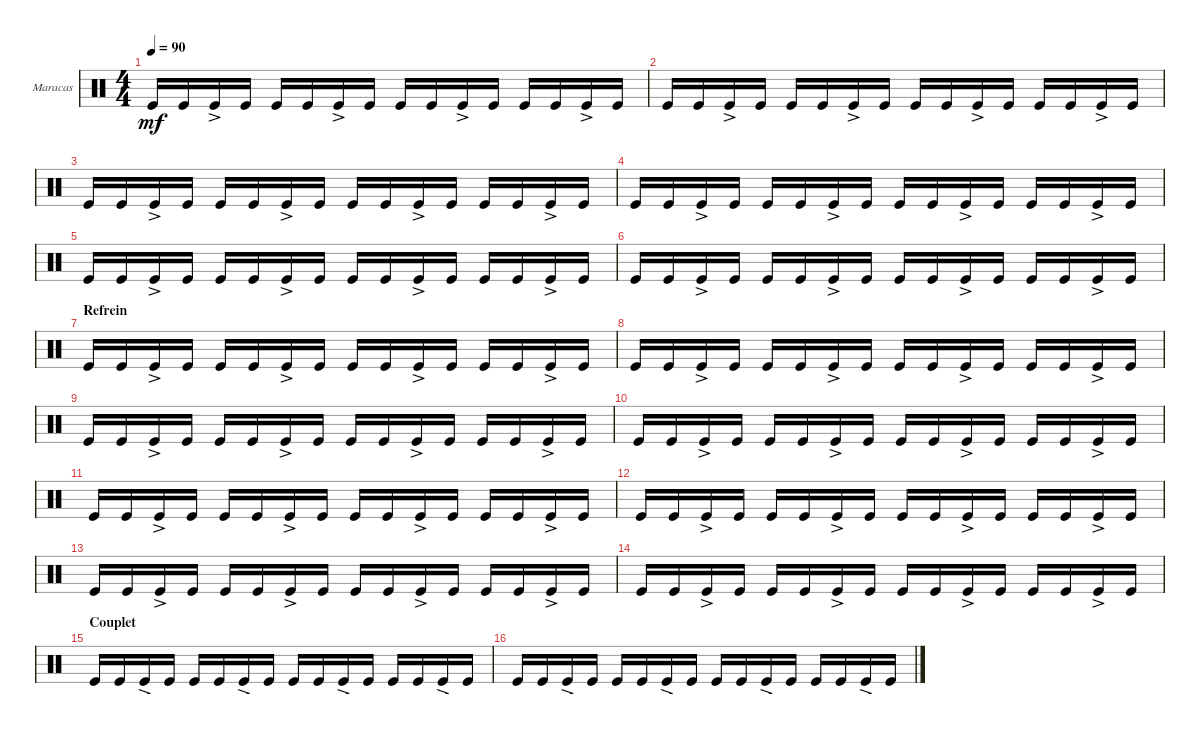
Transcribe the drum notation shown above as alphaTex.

\defaultSystemsLayout 4
\bracketExtendMode groupsimilarinstruments
\firstSystemTrackNameOrientation horizontal
\otherSystemsTrackNameOrientation horizontal
\track ("Maracas" "Maracas") {instrument percussion}
\staff {score}
\articulation defaults
\ts (4 4)
\tempo 90
\clef neutral
\scale
0.333333
\ks c "Kick (hit)".16{dy mf} "Kick (hit)".16 "Kick (hit)"{ac}.16 "Kick (hit)".16 "Kick (hit)".16 "Kick (hit)".16 "Kick (hit)"{ac}.16 "Kick (hit)".16 "Kick (hit)".16 "Kick (hit)".16 "Kick (hit)"{ac}.16 "Kick (hit)".16 "Kick (hit)".16 "Kick (hit)".16 "Kick (hit)"{ac}.16 "Kick (hit)".16
|
\scale
0.333333 "Kick (hit)".16 "Kick (hit)".16 "Kick (hit)"{ac}.16 "Kick (hit)".16 "Kick (hit)".16 "Kick (hit)".16 "Kick (hit)"{ac}.16 "Kick (hit)".16 "Kick (hit)".16 "Kick (hit)".16 "Kick (hit)"{ac}.16 "Kick (hit)".16 "Kick (hit)".16 "Kick (hit)".16 "Kick (hit)"{ac}.16 "Kick (hit)".16 |
\scale
0.333333 "Kick (hit)".16 "Kick (hit)".16 "Kick (hit)"{ac}.16 "Kick (hit)".16 "Kick (hit)".16 "Kick (hit)".16 "Kick (hit)"{ac}.16 "Kick (hit)".16 "Kick (hit)".16 "Kick (hit)".16 "Kick (hit)"{ac}.16 "Kick (hit)".16 "Kick (hit)".16 "Kick (hit)".16 "Kick (hit)"{ac}.16 "Kick (hit)".16 |
\scale
0.333333 "Kick (hit)".16 "Kick (hit)".16 "Kick (hit)"{ac}.16 "Kick (hit)".16 "Kick (hit)".16 "Kick (hit)".16 "Kick (hit)"{ac}.16 "Kick (hit)".16 "Kick (hit)".16 "Kick (hit)".16 "Kick (hit)"{ac}.16 "Kick (hit)".16 "Kick (hit)".16 "Kick (hit)".16 "Kick (hit)"{ac}.16 "Kick (hit)".16 |
\scale
0.333333 "Kick (hit)".16 "Kick (hit)".16 "Kick (hit)"{ac}.16 "Kick (hit)".16 "Kick (hit)".16 "Kick (hit)".16 "Kick (hit)"{ac}.16 "Kick (hit)".16 "Kick (hit)".16 "Kick (hit)".16 "Kick (hit)"{ac}.16 "Kick (hit)".16 "Kick (hit)".16 "Kick (hit)".16 "Kick (hit)"{ac}.16 "Kick (hit)".16 |
\scale
0.333333 "Kick (hit)".16 "Kick (hit)".16 "Kick (hit)"{ac}.16 "Kick (hit)".16 "Kick (hit)".16 "Kick (hit)".16 "Kick (hit)"{ac}.16 "Kick (hit)".16 "Kick (hit)".16 "Kick (hit)".16 "Kick (hit)"{ac}.16 "Kick (hit)".16 "Kick (hit)".16 "Kick (hit)".16 "Kick (hit)"{ac}.16 "Kick (hit)".16 |
\section ("" "Refrein")
\scale
0.333333 "Kick (hit)".16 "Kick (hit)".16 "Kick (hit)"{ac}.16 "Kick (hit)".16 "Kick (hit)".16 "Kick (hit)".16 "Kick (hit)"{ac}.16 "Kick (hit)".16 "Kick (hit)".16 "Kick (hit)".16 "Kick (hit)"{ac}.16 "Kick (hit)".16 "Kick (hit)".16 "Kick (hit)".16 "Kick (hit)"{ac}.16 "Kick (hit)".16 |
\scale
0.333333 "Kick (hit)".16 "Kick (hit)".16 "Kick (hit)"{ac}.16 "Kick (hit)".16 "Kick (hit)".16 "Kick (hit)".16 "Kick (hit)"{ac}.16 "Kick (hit)".16 "Kick (hit)".16 "Kick (hit)".16 "Kick (hit)"{ac}.16 "Kick (hit)".16 "Kick (hit)".16 "Kick (hit)".16 "Kick (hit)"{ac}.16 "Kick (hit)".16 |
\scale
0.333333 "Kick (hit)".16 "Kick (hit)".16 "Kick (hit)"{ac}.16 "Kick (hit)".16 "Kick (hit)".16 "Kick (hit)".16 "Kick (hit)"{ac}.16 "Kick (hit)".16 "Kick (hit)".16 "Kick (hit)".16 "Kick (hit)"{ac}.16 "Kick (hit)".16 "Kick (hit)".16 "Kick (hit)".16 "Kick (hit)"{ac}.16 "Kick (hit)".16 |
\scale
0.333333 "Kick (hit)".16 "Kick (hit)".16 "Kick (hit)"{ac}.16 "Kick (hit)".16 "Kick (hit)".16 "Kick (hit)".16 "Kick (hit)"{ac}.16 "Kick (hit)".16 "Kick (hit)".16 "Kick (hit)".16 "Kick (hit)"{ac}.16 "Kick (hit)".16 "Kick (hit)".16 "Kick (hit)".16 "Kick (hit)"{ac}.16 "Kick (hit)".16 |
\scale
0.333333 "Kick (hit)".16 "Kick (hit)".16 "Kick (hit)"{ac}.16 "Kick (hit)".16 "Kick (hit)".16 "Kick (hit)".16 "Kick (hit)"{ac}.16 "Kick (hit)".16 "Kick (hit)".16 "Kick (hit)".16 "Kick (hit)"{ac}.16 "Kick (hit)".16 "Kick (hit)".16 "Kick (hit)".16 "Kick (hit)"{ac}.16 "Kick (hit)".16 |
\scale
0.333333 "Kick (hit)".16 "Kick (hit)".16 "Kick (hit)"{ac}.16 "Kick (hit)".16 "Kick (hit)".16 "Kick (hit)".16 "Kick (hit)"{ac}.16 "Kick (hit)".16 "Kick (hit)".16 "Kick (hit)".16 "Kick (hit)"{ac}.16 "Kick (hit)".16 "Kick (hit)".16 "Kick (hit)".16 "Kick (hit)"{ac}.16 "Kick (hit)".16 |
\scale
0.333333 "Kick (hit)".16 "Kick (hit)".16 "Kick (hit)"{ac}.16 "Kick (hit)".16 "Kick (hit)".16 "Kick (hit)".16 "Kick (hit)"{ac}.16 "Kick (hit)".16 "Kick (hit)".16 "Kick (hit)".16 "Kick (hit)"{ac}.16 "Kick (hit)".16 "Kick (hit)".16 "Kick (hit)".16 "Kick (hit)"{ac}.16 "Kick (hit)".16 |
\scale
0.333333 "Kick (hit)".16 "Kick (hit)".16 "Kick (hit)"{ac}.16 "Kick (hit)".16 "Kick (hit)".16 "Kick (hit)".16 "Kick (hit)"{ac}.16 "Kick (hit)".16 "Kick (hit)".16 "Kick (hit)".16 "Kick (hit)"{ac}.16 "Kick (hit)".16 "Kick (hit)".16 "Kick (hit)".16 "Kick (hit)"{ac}.16 "Kick (hit)".16 |
\section ("" "Couplet")
\scale
0.333333 "Kick (hit)".16 "Kick (hit)".16 "Kick (hit)"{ac}.16 "Kick (hit)".16 "Kick (hit)".16 "Kick (hit)".16 "Kick (hit)"{ac}.16 "Kick (hit)".16 "Kick (hit)".16 "Kick (hit)".16 "Kick (hit)"{ac}.16 "Kick (hit)".16 "Kick (hit)".16 "Kick (hit)".16 "Kick (hit)"{ac}.16 "Kick (hit)".16 |
\scale
0.333333 "Kick (hit)".16 "Kick (hit)".16 "Kick (hit)"{ac}.16 "Kick (hit)".16 "Kick (hit)".16 "Kick (hit)".16 "Kick (hit)"{ac}.16 "Kick (hit)".16 "Kick (hit)".16 "Kick (hit)".16 "Kick (hit)"{ac}.16 "Kick (hit)".16 "Kick (hit)".16 "Kick (hit)".16 "Kick (hit)"{ac}.16 "Kick (hit)".16
